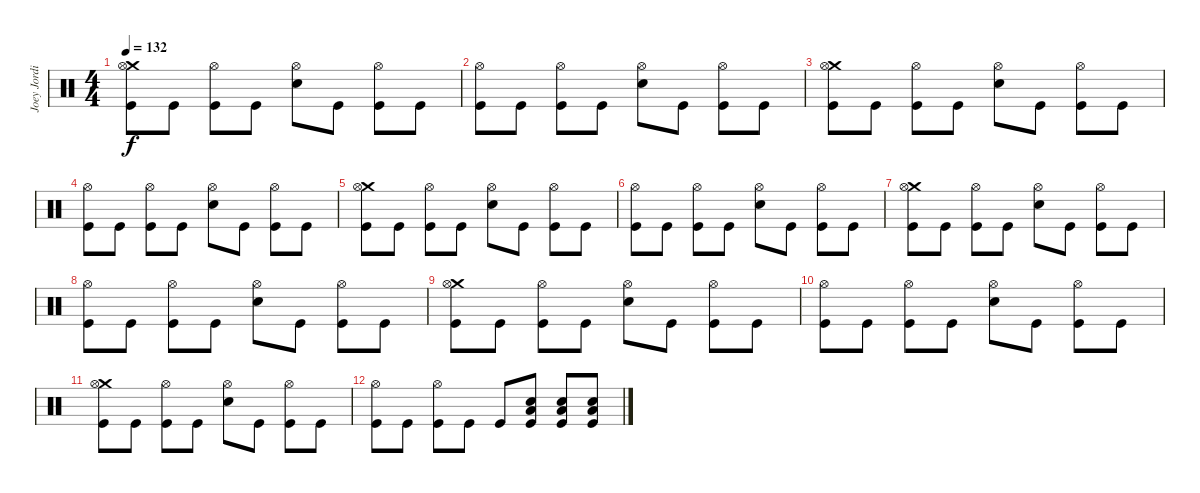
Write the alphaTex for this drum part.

\track ("Joey Jordison" "Joey Jordi") {instrument percussion}
\staff {score}
\articulation defaults
\ts (4 4)
\tempo 132
\clef neutral
\ks c
("Kick (hit)" "Crash medium (hit)" "Hi-Hat (open)").8{dy f} "Kick (hit)".8 ("Kick (hit)" "Hi-Hat (open)").8 "Kick (hit)".8 ("Snare (hit) 2" "Hi-Hat (open)").8 "Kick (hit)".8 ("Kick (hit)" "Hi-Hat (open)").8 "Kick (hit)".8 |
("Kick (hit)" "Hi-Hat (open)").8 "Kick (hit)".8 ("Kick (hit)" "Hi-Hat (open)").8 "Kick (hit)".8 ("Snare (hit) 2" "Hi-Hat (open)").8 "Kick (hit)".8 ("Kick (hit)" "Hi-Hat (open)").8 "Kick (hit)".8 |
("Kick (hit)" "Crash medium (hit)" "Hi-Hat (open)").8 "Kick (hit)".8 ("Kick (hit)" "Hi-Hat (open)").8 "Kick (hit)".8 ("Snare (hit) 2" "Hi-Hat (open)").8 "Kick (hit)".8 ("Kick (hit)" "Hi-Hat (open)").8 "Kick (hit)".8 |
("Kick (hit)" "Hi-Hat (open)").8 "Kick (hit)".8 ("Kick (hit)" "Hi-Hat (open)").8 "Kick (hit)".8 ("Snare (hit) 2" "Hi-Hat (open)").8 "Kick (hit)".8 ("Kick (hit)" "Hi-Hat (open)").8 "Kick (hit)".8 |
("Kick (hit)" "Crash medium (hit)" "Hi-Hat (open)").8 "Kick (hit)".8 ("Kick (hit)" "Hi-Hat (open)").8 "Kick (hit)".8 ("Snare (hit) 2" "Hi-Hat (open)").8 "Kick (hit)".8 ("Kick (hit)" "Hi-Hat (open)").8 "Kick (hit)".8 |
("Kick (hit)" "Hi-Hat (open)").8 "Kick (hit)".8 ("Kick (hit)" "Hi-Hat (open)").8 "Kick (hit)".8 ("Snare (hit) 2" "Hi-Hat (open)").8 "Kick (hit)".8 ("Kick (hit)" "Hi-Hat (open)").8 "Kick (hit)".8 |
("Kick (hit)" "Crash medium (hit)" "Hi-Hat (open)").8 "Kick (hit)".8 ("Kick (hit)" "Hi-Hat (open)").8 "Kick (hit)".8 ("Snare (hit) 2" "Hi-Hat (open)").8 "Kick (hit)".8 ("Kick (hit)" "Hi-Hat (open)").8 "Kick (hit)".8 |
("Kick (hit)" "Hi-Hat (open)").8 "Kick (hit)".8 ("Kick (hit)" "Hi-Hat (open)").8 "Kick (hit)".8 ("Snare (hit) 2" "Hi-Hat (open)").8 "Kick (hit)".8 ("Kick (hit)" "Hi-Hat (open)").8 "Kick (hit)".8 |
("Kick (hit)" "Crash medium (hit)" "Hi-Hat (open)").8 "Kick (hit)".8 ("Kick (hit)" "Hi-Hat (open)").8 "Kick (hit)".8 ("Snare (hit) 2" "Hi-Hat (open)").8 "Kick (hit)".8 ("Kick (hit)" "Hi-Hat (open)").8 "Kick (hit)".8 |
("Kick (hit)" "Hi-Hat (open)").8 "Kick (hit)".8 ("Kick (hit)" "Hi-Hat (open)").8 "Kick (hit)".8 ("Snare (hit) 2" "Hi-Hat (open)").8 "Kick (hit)".8 ("Kick (hit)" "Hi-Hat (open)").8 "Kick (hit)".8 |
("Kick (hit)" "Crash medium (hit)" "Hi-Hat (open)").8 "Kick (hit)".8 ("Kick (hit)" "Hi-Hat (open)").8 "Kick (hit)".8 ("Snare (hit) 2" "Hi-Hat (open)").8 "Kick (hit)".8 ("Kick (hit)" "Hi-Hat (open)").8 "Kick (hit)".8 |
("Kick (hit)" "Hi-Hat (open)").8 "Kick (hit)".8 ("Kick (hit)" "Hi-Hat (open)").8 "Kick (hit)".8 "Kick (hit)".8 ("Kick (hit)" "Snare (hit) 2" "Low Floor Tom (hit)").8 ("Kick (hit)" "Snare (hit) 2" "Low Floor Tom (hit)").8 ("Kick (hit)" "Snare (hit) 2" "Low Floor Tom (hit)").8
